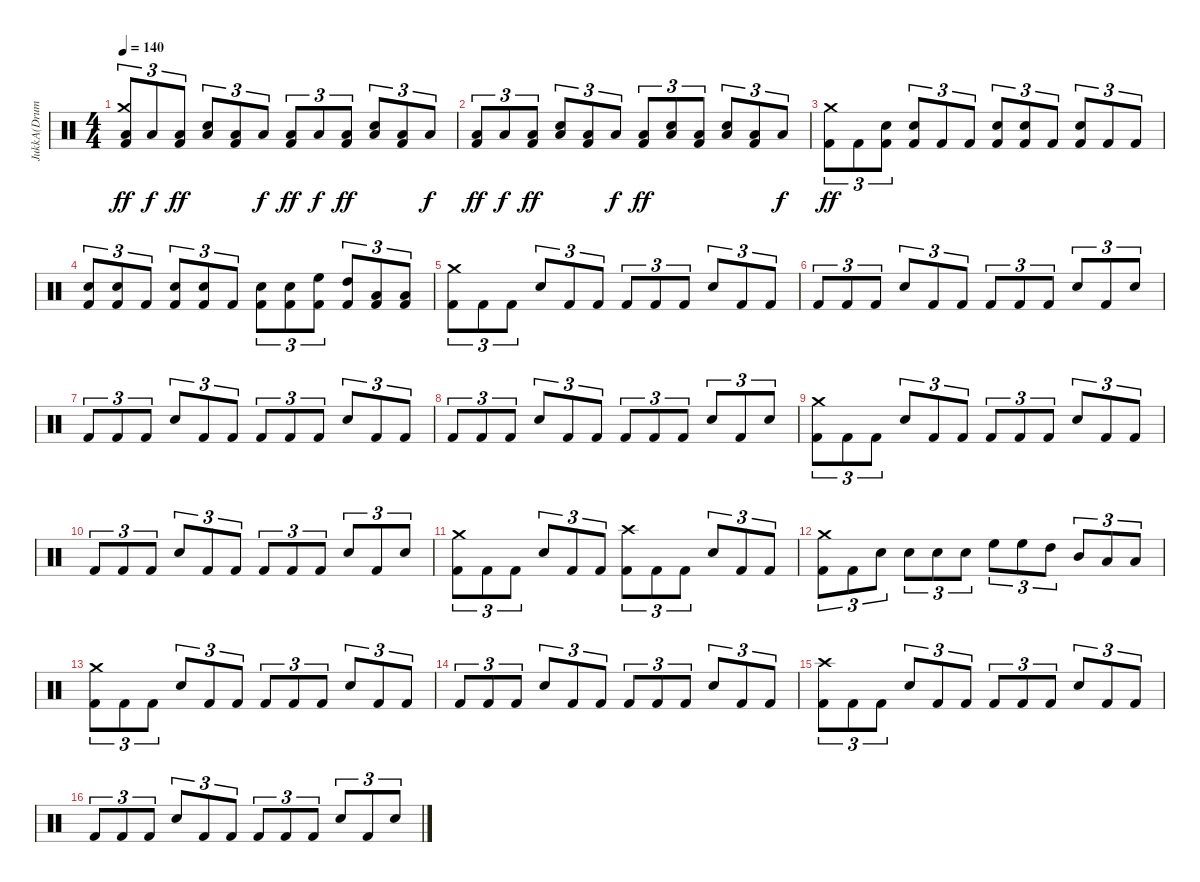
\track ("JukkA(Drums)" "JukkA(Drum") {instrument percussion}
\staff {score}
\articulation defaults
\ts (4 4)
\tempo 140
\clef neutral
\ks c
("Kick (hit) 2" "Crash medium (hit)" "Low Floor Tom (hit)").8{tu (3 2) dy ff} "Low Floor Tom (hit)".8{tu (3 2) dy f} ("Kick (hit) 2" "Low Floor Tom (hit)").8{tu (3 2) dy ff} ("Snare (hit) 2" "Low Floor Tom (hit)").8{tu (3 2)} ("Kick (hit) 2" "Low Floor Tom (hit)").8{tu (3 2)} "Low Floor Tom (hit)".8{tu (3 2) dy f} ("Kick (hit) 2" "Low Floor Tom (hit)").8{tu (3 2) dy ff} "Low Floor Tom (hit)".8{tu (3 2) dy f} ("Kick (hit) 2" "Low Floor Tom (hit)").8{tu (3 2) dy ff} ("Snare (hit) 2" "Low Floor Tom (hit)").8{tu (3 2)} ("Kick (hit) 2" "Low Floor Tom (hit)").8{tu (3 2)} "Low Floor Tom (hit)".8{tu (3 2) dy f} |
("Kick (hit) 2" "Low Floor Tom (hit)").8{tu (3 2) dy ff} "Low Floor Tom (hit)".8{tu (3 2) dy f} ("Kick (hit) 2" "Low Floor Tom (hit)").8{tu (3 2) dy ff} ("Snare (hit) 2" "Low Floor Tom (hit)").8{tu (3 2)} ("Kick (hit) 2" "Low Floor Tom (hit)").8{tu (3 2)} "Low Floor Tom (hit)".8{tu (3 2) dy f} ("Kick (hit) 2" "Low Floor Tom (hit)").8{tu (3 2) dy ff} ("Snare (hit) 2" "Low Floor Tom (hit)").8{tu (3 2)} ("Kick (hit) 2" "Low Floor Tom (hit)").8{tu (3 2)} ("Snare (hit) 2" "Low Floor Tom (hit)").8{tu (3 2)} ("Kick (hit) 2" "Low Floor Tom (hit)").8{tu (3 2)} "Low Floor Tom (hit)".8{tu (3 2) dy f} |
("Kick (hit) 2" "Crash medium (hit)").8{tu (3 2) dy ff} "Kick (hit) 2".8{tu (3 2)} ("Kick (hit) 2" "Snare (hit) 2").8{tu (3 2)} ("Snare (hit) 2" "Kick (hit) 2").8{tu (3 2)} "Kick (hit) 2".8{tu (3 2)} "Kick (hit) 2".8{tu (3 2)} ("Snare (hit) 2" "Kick (hit) 2").8{tu (3 2)} ("Snare (hit) 2" "Kick (hit) 2").8{tu (3 2)} "Kick (hit) 2".8{tu (3 2)} ("Snare (hit) 2" "Kick (hit) 2").8{tu (3 2)} "Kick (hit) 2".8{tu (3 2)} "Kick (hit) 2".8{tu (3 2)} |
("Snare (hit) 2" "Kick (hit) 2").8{tu (3 2)} ("Snare (hit) 2" "Kick (hit) 2").8{tu (3 2)} "Kick (hit) 2".8{tu (3 2)} ("Snare (hit) 2" "Kick (hit) 2").8{tu (3 2)} ("Snare (hit) 2" "Kick (hit) 2").8{tu (3 2)} "Kick (hit) 2".8{tu (3 2)} ("Snare (hit) 2" "Kick (hit) 2").8{tu (3 2)} ("Snare (hit) 2" "Kick (hit) 2").8{tu (3 2)} ("High Floor Tom (hit)" "Kick (hit) 2").8{tu (3 2)} ("High Tom (hit)" "Kick (hit) 2").8{tu (3 2)} ("Low Tom (hit)" "Kick (hit) 2").8{tu (3 2)} ("Low Floor Tom (hit)" "Kick (hit) 2").8{tu (3 2)} |
("Kick (hit) 2" "Crash medium (hit)").8{tu (3 2)} "Kick (hit) 2".8{tu (3 2)} "Kick (hit) 2".8{tu (3 2)} "Snare (hit) 2".8{tu (3 2)} "Kick (hit) 2".8{tu (3 2)} "Kick (hit) 2".8{tu (3 2)} "Kick (hit) 2".8{tu (3 2)} "Kick (hit) 2".8{tu (3 2)} "Kick (hit) 2".8{tu (3 2)} "Snare (hit) 2".8{tu (3 2)} "Kick (hit) 2".8{tu (3 2)} "Kick (hit) 2".8{tu (3 2)} |
"Kick (hit) 2".8{tu (3 2)} "Kick (hit) 2".8{tu (3 2)} "Kick (hit) 2".8{tu (3 2)} "Snare (hit) 2".8{tu (3 2)} "Kick (hit) 2".8{tu (3 2)} "Kick (hit) 2".8{tu (3 2)} "Kick (hit) 2".8{tu (3 2)} "Kick (hit) 2".8{tu (3 2)} "Kick (hit) 2".8{tu (3 2)} "Snare (hit) 2".8{tu (3 2)} "Kick (hit) 2".8{tu (3 2)} "Snare (hit) 2".8{tu (3 2)} |
"Kick (hit) 2".8{tu (3 2)} "Kick (hit) 2".8{tu (3 2)} "Kick (hit) 2".8{tu (3 2)} "Snare (hit) 2".8{tu (3 2)} "Kick (hit) 2".8{tu (3 2)} "Kick (hit) 2".8{tu (3 2)} "Kick (hit) 2".8{tu (3 2)} "Kick (hit) 2".8{tu (3 2)} "Kick (hit) 2".8{tu (3 2)} "Snare (hit) 2".8{tu (3 2)} "Kick (hit) 2".8{tu (3 2)} "Kick (hit) 2".8{tu (3 2)} |
"Kick (hit) 2".8{tu (3 2)} "Kick (hit) 2".8{tu (3 2)} "Kick (hit) 2".8{tu (3 2)} "Snare (hit) 2".8{tu (3 2)} "Kick (hit) 2".8{tu (3 2)} "Kick (hit) 2".8{tu (3 2)} "Kick (hit) 2".8{tu (3 2)} "Kick (hit) 2".8{tu (3 2)} "Kick (hit) 2".8{tu (3 2)} "Snare (hit) 2".8{tu (3 2)} "Kick (hit) 2".8{tu (3 2)} "Snare (hit) 2".8{tu (3 2)} |
("Kick (hit) 2" "Crash medium (hit)").8{tu (3 2)} "Kick (hit) 2".8{tu (3 2)} "Kick (hit) 2".8{tu (3 2)} "Snare (hit) 2".8{tu (3 2)} "Kick (hit) 2".8{tu (3 2)} "Kick (hit) 2".8{tu (3 2)} "Kick (hit) 2".8{tu (3 2)} "Kick (hit) 2".8{tu (3 2)} "Kick (hit) 2".8{tu (3 2)} "Snare (hit) 2".8{tu (3 2)} "Kick (hit) 2".8{tu (3 2)} "Kick (hit) 2".8{tu (3 2)} |
"Kick (hit) 2".8{tu (3 2)} "Kick (hit) 2".8{tu (3 2)} "Kick (hit) 2".8{tu (3 2)} "Snare (hit) 2".8{tu (3 2)} "Kick (hit) 2".8{tu (3 2)} "Kick (hit) 2".8{tu (3 2)} "Kick (hit) 2".8{tu (3 2)} "Kick (hit) 2".8{tu (3 2)} "Kick (hit) 2".8{tu (3 2)} "Snare (hit) 2".8{tu (3 2)} "Kick (hit) 2".8{tu (3 2)} "Snare (hit) 2".8{tu (3 2)} |
("Kick (hit) 2" "Crash medium (hit)").8{tu (3 2)} "Kick (hit) 2".8{tu (3 2)} "Kick (hit) 2".8{tu (3 2)} "Snare (hit) 2".8{tu (3 2)} "Kick (hit) 2".8{tu (3 2)} "Kick (hit) 2".8{tu (3 2)} ("Kick (hit) 2" "Crash high (hit)").8{tu (3 2)} "Kick (hit) 2".8{tu (3 2)} "Kick (hit) 2".8{tu (3 2)} "Snare (hit) 2".8{tu (3 2)} "Kick (hit) 2".8{tu (3 2)} "Kick (hit) 2".8{tu (3 2)} |
("Kick (hit) 2" "Crash medium (hit)").8{tu (3 2)} "Kick (hit) 2".8{tu (3 2)} "Snare (hit) 2".8{tu (3 2)} "Snare (hit) 2".8{tu (3 2)} "Snare (hit) 2".8{tu (3 2)} "Snare (hit) 2".8{tu (3 2)} "High Floor Tom (hit)".8{tu (3 2)} "High Floor Tom (hit)".8{tu (3 2)} "High Tom (hit)".8{tu (3 2)} "Mid Tom (hit)".8{tu (3 2)} "Low Tom (hit)".8{tu (3 2)} "Low Floor Tom (hit)".8{tu (3 2)} |
("Kick (hit) 2" "Crash medium (hit)").8{tu (3 2)} "Kick (hit) 2".8{tu (3 2)} "Kick (hit) 2".8{tu (3 2)} "Snare (hit) 2".8{tu (3 2)} "Kick (hit) 2".8{tu (3 2)} "Kick (hit) 2".8{tu (3 2)} "Kick (hit) 2".8{tu (3 2)} "Kick (hit) 2".8{tu (3 2)} "Kick (hit) 2".8{tu (3 2)} "Snare (hit) 2".8{tu (3 2)} "Kick (hit) 2".8{tu (3 2)} "Kick (hit) 2".8{tu (3 2)} |
"Kick (hit) 2".8{tu (3 2)} "Kick (hit) 2".8{tu (3 2)} "Kick (hit) 2".8{tu (3 2)} "Snare (hit) 2".8{tu (3 2)} "Kick (hit) 2".8{tu (3 2)} "Kick (hit) 2".8{tu (3 2)} "Kick (hit) 2".8{tu (3 2)} "Kick (hit) 2".8{tu (3 2)} "Kick (hit) 2".8{tu (3 2)} "Snare (hit) 2".8{tu (3 2)} "Kick (hit) 2".8{tu (3 2)} "Kick (hit) 2".8{tu (3 2)} |
("Kick (hit) 2" "Crash high (hit)").8{tu (3 2)} "Kick (hit) 2".8{tu (3 2)} "Kick (hit) 2".8{tu (3 2)} "Snare (hit) 2".8{tu (3 2)} "Kick (hit) 2".8{tu (3 2)} "Kick (hit) 2".8{tu (3 2)} "Kick (hit) 2".8{tu (3 2)} "Kick (hit) 2".8{tu (3 2)} "Kick (hit) 2".8{tu (3 2)} "Snare (hit) 2".8{tu (3 2)} "Kick (hit) 2".8{tu (3 2)} "Kick (hit) 2".8{tu (3 2)} |
"Kick (hit) 2".8{tu (3 2)} "Kick (hit) 2".8{tu (3 2)} "Kick (hit) 2".8{tu (3 2)} "Snare (hit) 2".8{tu (3 2)} "Kick (hit) 2".8{tu (3 2)} "Kick (hit) 2".8{tu (3 2)} "Kick (hit) 2".8{tu (3 2)} "Kick (hit) 2".8{tu (3 2)} "Kick (hit) 2".8{tu (3 2)} "Snare (hit) 2".8{tu (3 2)} "Kick (hit) 2".8{tu (3 2)} "Snare (hit) 2".8{tu (3 2)}
